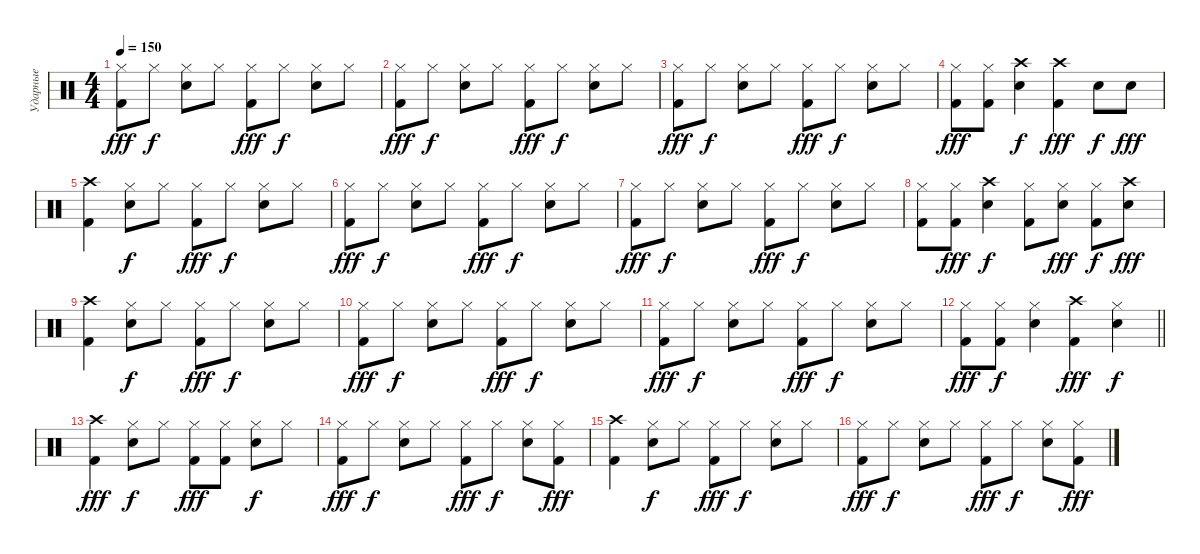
\track ("Ударные" "Ударные") {instrument percussion}
\staff {score}
\articulation defaults
\ts (4 4)
\tempo 150
\clef neutral
\ks c
("Kick (hit) 2" "Hi-Hat (closed)").8{dy fff} "Hi-Hat (closed)".8{dy f} ("Snare (hit) 2" "Hi-Hat (closed)").8 "Hi-Hat (closed)".8 ("Kick (hit) 2" "Hi-Hat (closed)").8{dy fff} "Hi-Hat (closed)".8{dy f} ("Snare (hit) 2" "Hi-Hat (closed)").8 "Hi-Hat (closed)".8 |
("Kick (hit) 2" "Hi-Hat (closed)").8{dy fff} "Hi-Hat (closed)".8{dy f} ("Snare (hit) 2" "Hi-Hat (closed)").8 "Hi-Hat (closed)".8 ("Kick (hit) 2" "Hi-Hat (closed)").8{dy fff} "Hi-Hat (closed)".8{dy f} ("Snare (hit) 2" "Hi-Hat (closed)").8 "Hi-Hat (closed)".8 |
("Kick (hit) 2" "Hi-Hat (closed)").8{dy fff} "Hi-Hat (closed)".8{dy f} ("Snare (hit) 2" "Hi-Hat (closed)").8 "Hi-Hat (closed)".8 ("Kick (hit) 2" "Hi-Hat (closed)").8{dy fff} "Hi-Hat (closed)".8{dy f} ("Snare (hit) 2" "Hi-Hat (closed)").8 "Hi-Hat (closed)".8 |
("Kick (hit) 2" "Hi-Hat (closed)").8{dy fff} ("Kick (hit) 2" "Hi-Hat (closed)").8 ("Snare (hit) 2" "Crash high (hit)").4{dy f} ("Kick (hit) 2" "Crash high (hit)").4{dy fff} "Snare (hit) 2".8{dy f} "Snare (hit) 2".8{dy fff} |
("Kick (hit) 2" "Crash high (hit)").4 ("Snare (hit) 2" "Hi-Hat (closed)").8{dy f} "Hi-Hat (closed)".8 ("Kick (hit) 2" "Hi-Hat (closed)").8{dy fff} "Hi-Hat (closed)".8{dy f} ("Snare (hit) 2" "Hi-Hat (closed)").8 "Hi-Hat (closed)".8 |
("Kick (hit) 2" "Hi-Hat (closed)").8{dy fff} "Hi-Hat (closed)".8{dy f} ("Snare (hit) 2" "Hi-Hat (closed)").8 "Hi-Hat (closed)".8 ("Kick (hit) 2" "Hi-Hat (closed)").8{dy fff} "Hi-Hat (closed)".8{dy f} ("Snare (hit) 2" "Hi-Hat (closed)").8 "Hi-Hat (closed)".8 |
("Kick (hit) 2" "Hi-Hat (closed)").8{dy fff} "Hi-Hat (closed)".8{dy f} ("Snare (hit) 2" "Hi-Hat (closed)").8 "Hi-Hat (closed)".8 ("Kick (hit) 2" "Hi-Hat (closed)").8{dy fff} "Hi-Hat (closed)".8{dy f} ("Snare (hit) 2" "Hi-Hat (closed)").8 "Hi-Hat (closed)".8 |
("Kick (hit) 2" "Hi-Hat (closed)").8 ("Kick (hit) 2" "Hi-Hat (closed)").8{dy fff} ("Snare (hit) 2" "Crash high (hit)").4{dy f} ("Kick (hit) 2" "Hi-Hat (closed)").8 ("Snare (hit) 2" "Hi-Hat (closed)").8{dy fff} ("Kick (hit) 2" "Hi-Hat (closed)").8{dy f} ("Snare (hit) 2" "Crash high (hit)").8{dy fff} |
("Kick (hit) 2" "Crash high (hit)").4 ("Snare (hit) 2" "Hi-Hat (closed)").8{dy f} "Hi-Hat (closed)".8 ("Kick (hit) 2" "Hi-Hat (closed)").8{dy fff} "Hi-Hat (closed)".8{dy f} ("Snare (hit) 2" "Hi-Hat (closed)").8 "Hi-Hat (closed)".8 |
("Kick (hit) 2" "Hi-Hat (closed)").8{dy fff} "Hi-Hat (closed)".8{dy f} ("Snare (hit) 2" "Hi-Hat (closed)").8 "Hi-Hat (closed)".8 ("Kick (hit) 2" "Hi-Hat (closed)").8{dy fff} "Hi-Hat (closed)".8{dy f} ("Snare (hit) 2" "Hi-Hat (closed)").8 "Hi-Hat (closed)".8 |
("Kick (hit) 2" "Hi-Hat (closed)").8{dy fff} "Hi-Hat (closed)".8{dy f} ("Snare (hit) 2" "Hi-Hat (closed)").8 "Hi-Hat (closed)".8 ("Kick (hit) 2" "Hi-Hat (closed)").8{dy fff} "Hi-Hat (closed)".8{dy f} ("Snare (hit) 2" "Hi-Hat (closed)").8 "Hi-Hat (closed)".8 |
\barLineRight lightlight
("Kick (hit) 2" "Hi-Hat (closed)").8{dy fff} ("Kick (hit) 2" "Hi-Hat (closed)").8{dy f} ("Snare (hit) 2" "Hi-Hat (closed)").4 ("Kick (hit) 2" "Crash high (hit)").4{dy fff} ("Snare (hit) 2" "Hi-Hat (closed)").4{dy f} |
("Kick (hit) 2" "Crash high (hit)").4{dy fff} ("Snare (hit) 2" "Hi-Hat (closed)").8{dy f} "Hi-Hat (closed)".8 ("Kick (hit) 2" "Hi-Hat (closed)").8{dy fff} ("Kick (hit) 2" "Hi-Hat (closed)").8 ("Snare (hit) 2" "Hi-Hat (closed)").8{dy f} "Hi-Hat (closed)".8 |
("Kick (hit) 2" "Hi-Hat (closed)").8{dy fff} "Hi-Hat (closed)".8{dy f} ("Snare (hit) 2" "Hi-Hat (closed)").8 "Hi-Hat (closed)".8 ("Kick (hit) 2" "Hi-Hat (closed)").8{dy fff} "Hi-Hat (closed)".8{dy f} ("Snare (hit) 2" "Hi-Hat (closed)").8 ("Kick (hit) 2" "Hi-Hat (closed)").8{dy fff} |
("Kick (hit) 2" "Crash high (hit)").4 ("Snare (hit) 2" "Hi-Hat (closed)").8{dy f} "Hi-Hat (closed)".8 ("Kick (hit) 2" "Hi-Hat (closed)").8{dy fff} "Hi-Hat (closed)".8{dy f} ("Snare (hit) 2" "Hi-Hat (closed)").8 "Hi-Hat (closed)".8 |
("Kick (hit) 2" "Hi-Hat (closed)").8{dy fff} "Hi-Hat (closed)".8{dy f} ("Snare (hit) 2" "Hi-Hat (closed)").8 "Hi-Hat (closed)".8 ("Kick (hit) 2" "Hi-Hat (closed)").8{dy fff} "Hi-Hat (closed)".8{dy f} ("Snare (hit) 2" "Hi-Hat (closed)").8 ("Kick (hit) 2" "Hi-Hat (closed)").8{dy fff}
